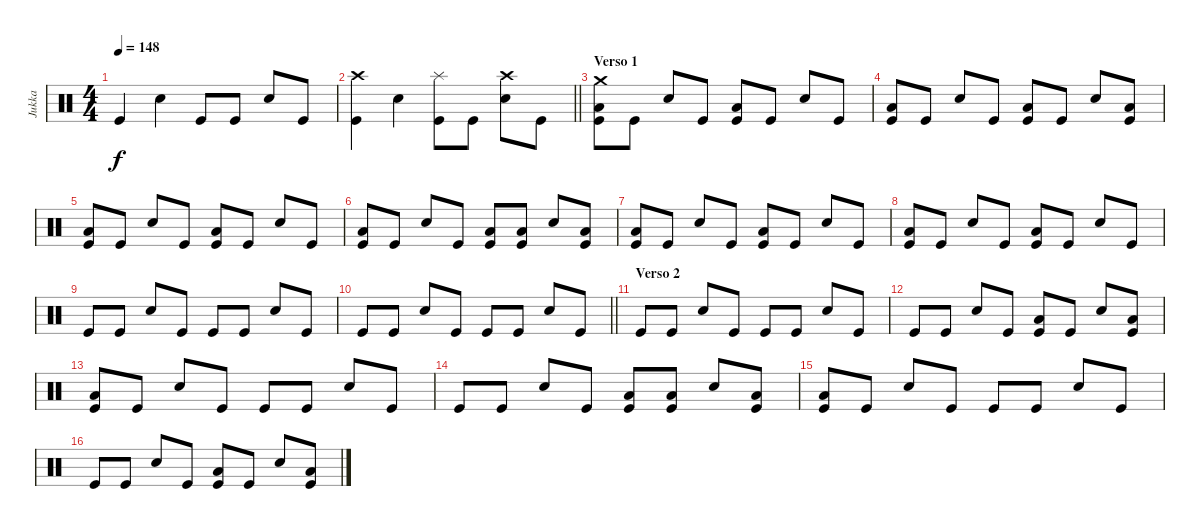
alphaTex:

\track ("Jukka" "Jukka") {instrument percussion}
\staff {score}
\articulation defaults
\ts (4 4)
\tempo 148
\clef neutral
\ks c "Kick (hit)".4{dy f} "Snare (hit) 2".4 "Kick (hit)".8 "Kick (hit)".8 "Snare (hit) 2".8 "Kick (hit)".8
|
\barLineRight lightlight
("Kick (hit)" "Crash high (hit)").4 "Snare (hit) 2".4 ("Kick (hit)" "Splash (hit)").8 "Kick (hit)".8 ("Snare (hit) 2" "Crash high (hit)").8 "Kick (hit)".8 |
\section ("" "Verso 1")
("Kick (hit)" "Low Floor Tom (hit)" "Crash medium (hit)").8 "Kick (hit)".8 "Snare (hit) 2".8 "Kick (hit)".8 ("Kick (hit)" "Low Floor Tom (hit)").8 "Kick (hit)".8 "Snare (hit) 2".8 "Kick (hit)".8 |
("Kick (hit)" "Low Floor Tom (hit)").8 "Kick (hit)".8 "Snare (hit) 2".8 "Kick (hit)".8 ("Kick (hit)" "Low Floor Tom (hit)").8 "Kick (hit)".8 "Snare (hit) 2".8 ("Kick (hit)" "Low Floor Tom (hit)").8 |
("Kick (hit)" "Low Floor Tom (hit)").8 "Kick (hit)".8 "Snare (hit) 2".8 "Kick (hit)".8 ("Kick (hit)" "Low Floor Tom (hit)").8 "Kick (hit)".8 "Snare (hit) 2".8 "Kick (hit)".8 |
("Kick (hit)" "Low Floor Tom (hit)").8 "Kick (hit)".8 "Snare (hit) 2".8 "Kick (hit)".8 ("Kick (hit)" "Low Floor Tom (hit)").8 ("Kick (hit)" "Low Floor Tom (hit)").8 "Snare (hit) 2".8 ("Kick (hit)" "Low Floor Tom (hit)").8 |
("Kick (hit)" "Low Floor Tom (hit)").8 "Kick (hit)".8 "Snare (hit) 2".8 "Kick (hit)".8 ("Kick (hit)" "Low Floor Tom (hit)").8 "Kick (hit)".8 "Snare (hit) 2".8 "Kick (hit)".8 |
("Kick (hit)" "Low Floor Tom (hit)").8 "Kick (hit)".8 "Snare (hit) 2".8 "Kick (hit)".8 ("Kick (hit)" "Low Floor Tom (hit)").8 "Kick (hit)".8 "Snare (hit) 2".8 "Kick (hit)".8 |
"Kick (hit)".8 "Kick (hit)".8 "Snare (hit) 2".8 "Kick (hit)".8 "Kick (hit)".8 "Kick (hit)".8 "Snare (hit) 2".8 "Kick (hit)".8 |
\barLineRight lightlight "Kick (hit)".8 "Kick (hit)".8 "Snare (hit) 2".8 "Kick (hit)".8 "Kick (hit)".8 "Kick (hit)".8 "Snare (hit) 2".8 "Kick (hit)".8
|
\section ("" "Verso 2")
"Kick (hit)".8 "Kick (hit)".8 "Snare (hit) 2".8 "Kick (hit)".8 "Kick (hit)".8 "Kick (hit)".8 "Snare (hit) 2".8 "Kick (hit)".8 |
"Kick (hit)".8 "Kick (hit)".8 "Snare (hit) 2".8 "Kick (hit)".8 ("Kick (hit)" "Low Floor Tom (hit)").8 "Kick (hit)".8 "Snare (hit) 2".8 ("Kick (hit)" "Low Floor Tom (hit)").8 |
("Kick (hit)" "Low Floor Tom (hit)").8 "Kick (hit)".8 "Snare (hit) 2".8 "Kick (hit)".8 "Kick (hit)".8 "Kick (hit)".8 "Snare (hit) 2".8 "Kick (hit)".8 |
"Kick (hit)".8 "Kick (hit)".8 "Snare (hit) 2".8 "Kick (hit)".8 ("Kick (hit)" "Low Floor Tom (hit)").8 ("Kick (hit)" "Low Floor Tom (hit)").8 "Snare (hit) 2".8 ("Kick (hit)" "Low Floor Tom (hit)").8 |
("Kick (hit)" "Low Floor Tom (hit)").8 "Kick (hit)".8 "Snare (hit) 2".8 "Kick (hit)".8 "Kick (hit)".8 "Kick (hit)".8 "Snare (hit) 2".8 "Kick (hit)".8 |
"Kick (hit)".8 "Kick (hit)".8 "Snare (hit) 2".8 "Kick (hit)".8 ("Kick (hit)" "Low Floor Tom (hit)").8 "Kick (hit)".8 "Snare (hit) 2".8 ("Kick (hit)" "Low Floor Tom (hit)").8
